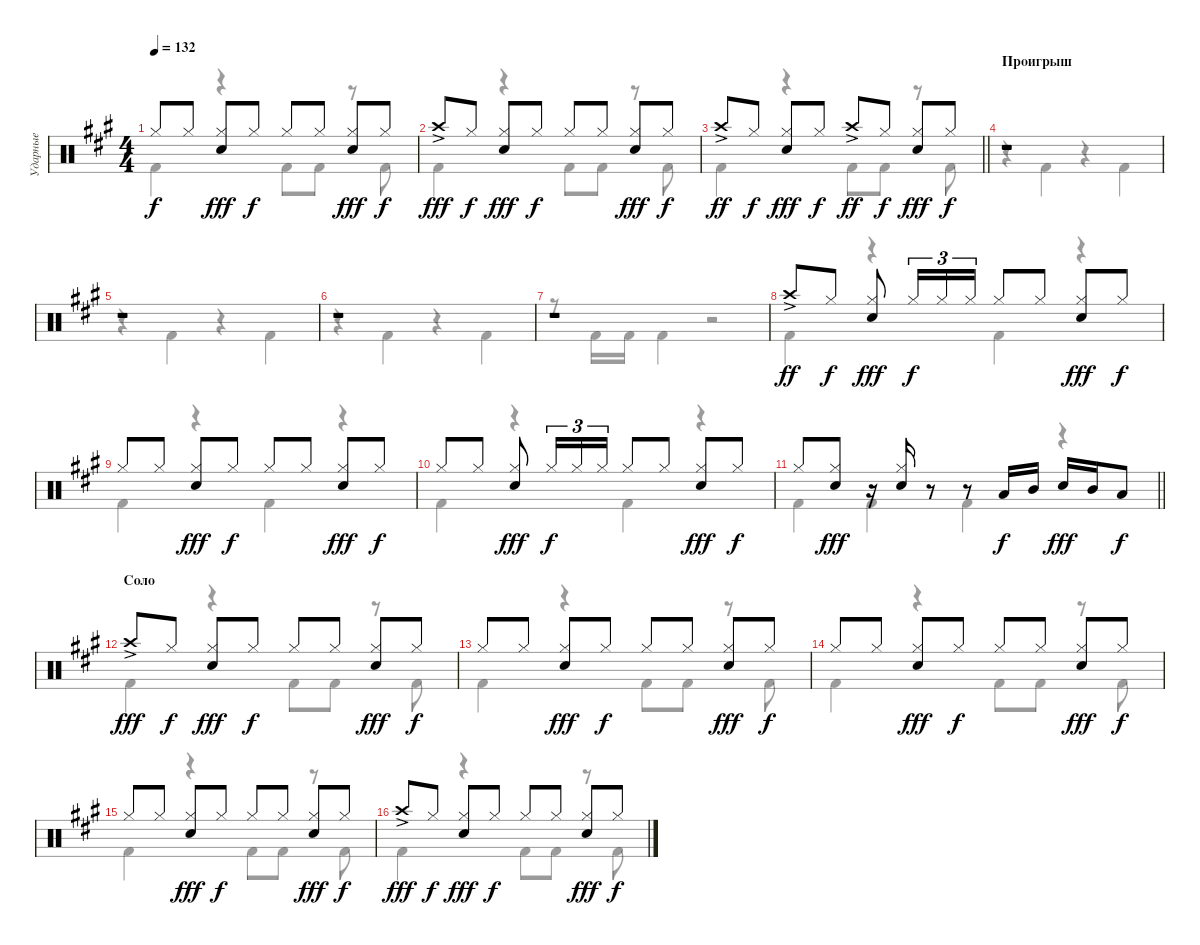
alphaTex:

\track ("Ударные" "Ударные") {instrument percussion}
\staff {score}
\articulation defaults
\voice
\ts (4 4)
\tempo 132
\clef neutral
\ks a "Hi-Hat (closed)".8{dy f} "Hi-Hat (closed)".8
("Electric Snare (hit)" "Hi-Hat (closed)").8{dy fff} "Hi-Hat (closed)".8{dy f} "Hi-Hat (closed)".8 "Hi-Hat (closed)".8 ("Electric Snare (hit)" "Hi-Hat (closed)").8{dy fff} "Hi-Hat (closed)".8{dy f} |
"Crash high (hit)"{ac}.8{dy fff} "Hi-Hat (closed)".8{dy f} ("Electric Snare (hit)" "Hi-Hat (closed)").8{dy fff} "Hi-Hat (closed)".8{dy f} "Hi-Hat (closed)".8 "Hi-Hat (closed)".8 ("Electric Snare (hit)" "Hi-Hat (closed)").8{dy fff} "Hi-Hat (closed)".8{dy f} |
\barLineRight lightlight "Crash high (hit)"{ac}.8{dy ff} "Hi-Hat (closed)".8{dy f}
("Electric Snare (hit)" "Hi-Hat (closed)").8{dy fff} "Hi-Hat (closed)".8{dy f} "Crash high (hit)"{ac}.8{dy ff} "Hi-Hat (closed)".8{dy f} ("Electric Snare (hit)" "Hi-Hat (closed)").8{dy fff} "Hi-Hat (closed)".8{dy f} |
\section ("" "Проигрыш")
r.1 |
r.1 |
r.1 |
r.1 |
"Crash high (hit)"{ac}.8{dy ff} "Hi-Hat (closed)".8{dy f} ("Hi-Hat (closed)" "Electric Snare (hit)").8{dy fff} "Hi-Hat (closed)".16{tu (3 2) dy f} "Hi-Hat (closed)".16{tu (3 2)} "Hi-Hat (closed)".16{tu (3 2)} "Hi-Hat (closed)".8 "Hi-Hat (closed)".8 ("Hi-Hat (closed)" "Electric Snare (hit)").8{dy fff} "Hi-Hat (closed)".8{dy f} |
"Hi-Hat (closed)".8 "Hi-Hat (closed)".8 ("Hi-Hat (closed)" "Electric Snare (hit)").8{dy fff} "Hi-Hat (closed)".8{dy f} "Hi-Hat (closed)".8 "Hi-Hat (closed)".8 ("Hi-Hat (closed)" "Electric Snare (hit)").8{dy fff} "Hi-Hat (closed)".8{dy f} |
"Hi-Hat (closed)".8 "Hi-Hat (closed)".8 ("Hi-Hat (closed)" "Electric Snare (hit)").8{dy fff} "Hi-Hat (closed)".16{tu (3 2) dy f} "Hi-Hat (closed)".16{tu (3 2)} "Hi-Hat (closed)".16{tu (3 2)} "Hi-Hat (closed)".8 "Hi-Hat (closed)".8 ("Hi-Hat (closed)" "Electric Snare (hit)").8{dy fff} "Hi-Hat (closed)".8{dy f} |
\barLineRight lightlight "Hi-Hat (closed)".8
("Electric Snare (hit)" "Hi-Hat (closed)").8{dy fff} r.16 ("Electric Snare (hit)" "Hi-Hat (closed)").16 r.8 r.8 "Low Tom (hit)".16{dy f} "Mid Tom (hit)".16 "Electric Snare (hit)".16{dy fff} "Mid Tom (hit)".16 "Low Tom (hit)".8{dy f} |
\section ("" "Соло")
"Crash high (hit)"{ac}.8{dy fff} "Hi-Hat (closed)".8{dy f} ("Electric Snare (hit)" "Hi-Hat (closed)").8{dy fff} "Hi-Hat (closed)".8{dy f} "Hi-Hat (closed)".8 "Hi-Hat (closed)".8 ("Electric Snare (hit)" "Hi-Hat (closed)").8{dy fff} "Hi-Hat (closed)".8{dy f} |
"Hi-Hat (closed)".8 "Hi-Hat (closed)".8 ("Electric Snare (hit)" "Hi-Hat (closed)").8{dy fff} "Hi-Hat (closed)".8{dy f} "Hi-Hat (closed)".8 "Hi-Hat (closed)".8 ("Electric Snare (hit)" "Hi-Hat (closed)").8{dy fff} "Hi-Hat (closed)".8{dy f} |
"Hi-Hat (closed)".8 "Hi-Hat (closed)".8 ("Electric Snare (hit)" "Hi-Hat (closed)").8{dy fff} "Hi-Hat (closed)".8{dy f} "Hi-Hat (closed)".8 "Hi-Hat (closed)".8 ("Electric Snare (hit)" "Hi-Hat (closed)").8{dy fff} "Hi-Hat (closed)".8{dy f} |
"Hi-Hat (closed)".8 "Hi-Hat (closed)".8 ("Electric Snare (hit)" "Hi-Hat (closed)").8{dy fff} "Hi-Hat (closed)".8{dy f} "Hi-Hat (closed)".8 "Hi-Hat (closed)".8 ("Electric Snare (hit)" "Hi-Hat (closed)").8{dy fff} "Hi-Hat (closed)".8{dy f} |
"Crash high (hit)"{ac}.8{dy fff} "Hi-Hat (closed)".8{dy f} ("Electric Snare (hit)" "Hi-Hat (closed)").8{dy fff} "Hi-Hat (closed)".8{dy f} "Hi-Hat (closed)".8 "Hi-Hat (closed)".8 ("Electric Snare (hit)" "Hi-Hat (closed)").8{dy fff} "Hi-Hat (closed)".8{dy f}
\voice
\clef neutral
\ottava regular
\simile none
\ks a "Kick (hit) 2".4{dy f}
r.4 "Kick (hit) 2".8 "Kick (hit) 2".8 r.8 "Kick (hit) 2".8 |
"Kick (hit) 2".4 r.4 "Kick (hit) 2".8 "Kick (hit) 2".8 r.8 "Kick (hit) 2".8 |
\barLineRight lightlight "Kick (hit) 2".4
r.4 "Kick (hit) 2".8 "Kick (hit) 2".8 r.8 "Kick (hit) 2".8 |
r.4 "Kick (hit) 2".4 r.4 "Kick (hit) 2".4 |
r.4 "Kick (hit) 2".4 r.4 "Kick (hit) 2".4 |
r.4 "Kick (hit) 2".4 r.4 "Kick (hit) 2".4 |
r.8 "Kick (hit) 2".16 "Kick (hit) 2".16 "Kick (hit) 2".4 r.2 |
"Kick (hit) 2".4 r.4 "Kick (hit) 2".4 r.4 |
"Kick (hit) 2".4 r.4 "Kick (hit) 2".4 r.4 |
"Kick (hit) 2".4 r.4 "Kick (hit) 2".4 r.4 |
\barLineRight lightlight "Kick (hit) 2".4 "Kick (hit) 2".4 "Kick (hit) 2".4
r.4 |
"Kick (hit) 2".4 r.4 "Kick (hit) 2".8 "Kick (hit) 2".8 r.8 "Kick (hit) 2".8 |
"Kick (hit) 2".4 r.4 "Kick (hit) 2".8 "Kick (hit) 2".8 r.8 "Kick (hit) 2".8 |
"Kick (hit) 2".4 r.4 "Kick (hit) 2".8 "Kick (hit) 2".8 r.8 "Kick (hit) 2".8 |
"Kick (hit) 2".4 r.4 "Kick (hit) 2".8 "Kick (hit) 2".8 r.8 "Kick (hit) 2".8 |
"Kick (hit) 2".4 r.4 "Kick (hit) 2".8 "Kick (hit) 2".8 r.8 "Kick (hit) 2".8
